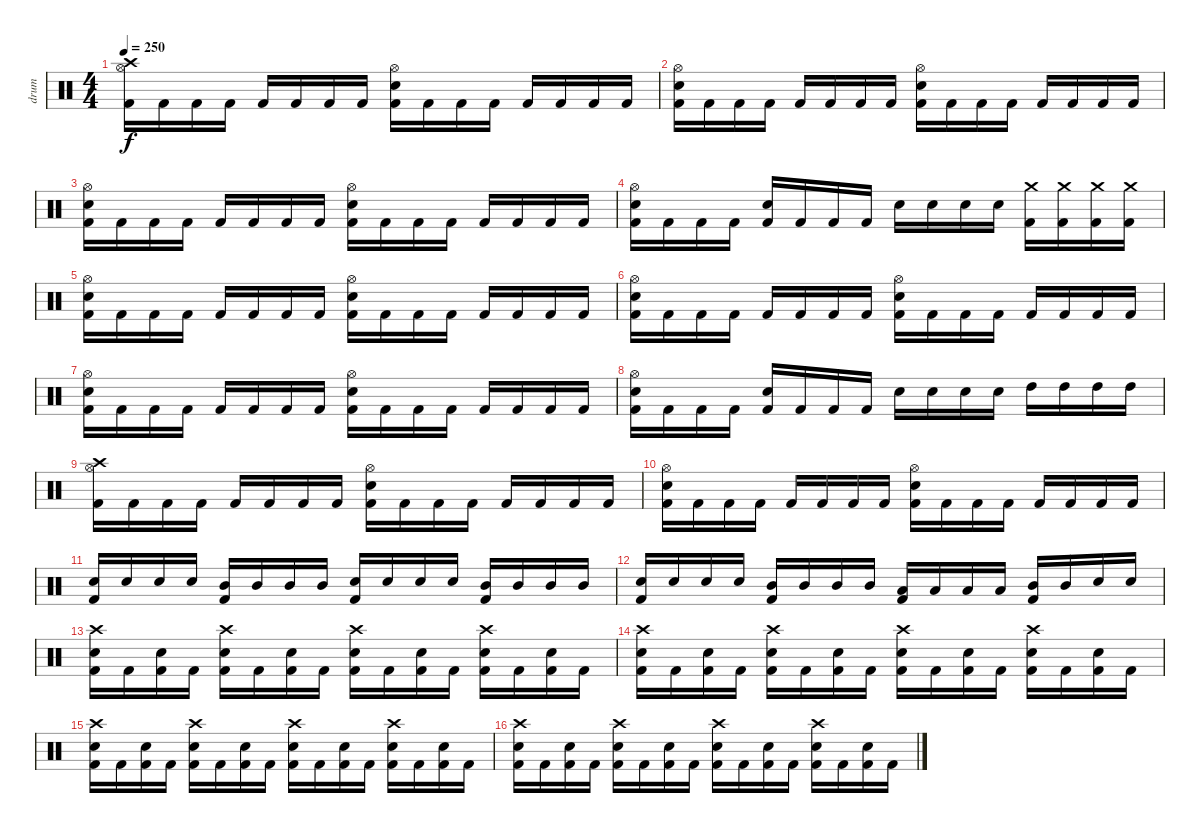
\track ("drum" "drum") {instrument percussion}
\staff {score}
\articulation defaults
\ts (4 4)
\tempo 250
\clef neutral
\ks c
("Crash high (hit)" "Hi-Hat (open)" "Kick (hit) 2").16{dy f} "Kick (hit) 2".16 "Kick (hit) 2".16 "Kick (hit) 2".16 "Kick (hit) 2".16 "Kick (hit) 2".16 "Kick (hit) 2".16 "Kick (hit) 2".16 ("Snare (hit) 2" "Hi-Hat (open)" "Kick (hit) 2").16 "Kick (hit) 2".16 "Kick (hit) 2".16 "Kick (hit) 2".16 "Kick (hit) 2".16 "Kick (hit) 2".16 "Kick (hit) 2".16 "Kick (hit) 2".16 |
("Snare (hit) 2" "Hi-Hat (open)" "Kick (hit) 2").16 "Kick (hit) 2".16 "Kick (hit) 2".16 "Kick (hit) 2".16 "Kick (hit) 2".16 "Kick (hit) 2".16 "Kick (hit) 2".16 "Kick (hit) 2".16 ("Snare (hit) 2" "Hi-Hat (open)" "Kick (hit) 2").16 "Kick (hit) 2".16 "Kick (hit) 2".16 "Kick (hit) 2".16 "Kick (hit) 2".16 "Kick (hit) 2".16 "Kick (hit) 2".16 "Kick (hit) 2".16 |
("Snare (hit) 2" "Hi-Hat (open)" "Kick (hit) 2").16 "Kick (hit) 2".16 "Kick (hit) 2".16 "Kick (hit) 2".16 "Kick (hit) 2".16 "Kick (hit) 2".16 "Kick (hit) 2".16 "Kick (hit) 2".16 ("Snare (hit) 2" "Hi-Hat (open)" "Kick (hit) 2").16 "Kick (hit) 2".16 "Kick (hit) 2".16 "Kick (hit) 2".16 "Kick (hit) 2".16 "Kick (hit) 2".16 "Kick (hit) 2".16 "Kick (hit) 2".16 |
("Snare (hit) 2" "Hi-Hat (open)" "Kick (hit) 2").16 "Kick (hit) 2".16 "Kick (hit) 2".16 "Kick (hit) 2".16 ("Snare (hit) 2" "Kick (hit) 2").16 "Kick (hit) 2".16 "Kick (hit) 2".16 "Kick (hit) 2".16 "Snare (hit) 2".16 "Snare (hit) 2".16 "Snare (hit) 2".16 "Snare (hit) 2".16 ("Crash medium (hit)" "Kick (hit) 2").16 ("Crash medium (hit)" "Kick (hit) 2").16 ("Crash medium (hit)" "Kick (hit) 2").16 ("Crash medium (hit)" "Kick (hit) 2").16 |
("Snare (hit) 2" "Hi-Hat (open)" "Kick (hit) 2").16 "Kick (hit) 2".16 "Kick (hit) 2".16 "Kick (hit) 2".16 "Kick (hit) 2".16 "Kick (hit) 2".16 "Kick (hit) 2".16 "Kick (hit) 2".16 ("Snare (hit) 2" "Hi-Hat (open)" "Kick (hit) 2").16 "Kick (hit) 2".16 "Kick (hit) 2".16 "Kick (hit) 2".16 "Kick (hit) 2".16 "Kick (hit) 2".16 "Kick (hit) 2".16 "Kick (hit) 2".16 |
("Snare (hit) 2" "Hi-Hat (open)" "Kick (hit) 2").16 "Kick (hit) 2".16 "Kick (hit) 2".16 "Kick (hit) 2".16 "Kick (hit) 2".16 "Kick (hit) 2".16 "Kick (hit) 2".16 "Kick (hit) 2".16 ("Snare (hit) 2" "Hi-Hat (open)" "Kick (hit) 2").16 "Kick (hit) 2".16 "Kick (hit) 2".16 "Kick (hit) 2".16 "Kick (hit) 2".16 "Kick (hit) 2".16 "Kick (hit) 2".16 "Kick (hit) 2".16 |
("Snare (hit) 2" "Hi-Hat (open)" "Kick (hit) 2").16 "Kick (hit) 2".16 "Kick (hit) 2".16 "Kick (hit) 2".16 "Kick (hit) 2".16 "Kick (hit) 2".16 "Kick (hit) 2".16 "Kick (hit) 2".16 ("Snare (hit) 2" "Hi-Hat (open)" "Kick (hit) 2").16 "Kick (hit) 2".16 "Kick (hit) 2".16 "Kick (hit) 2".16 "Kick (hit) 2".16 "Kick (hit) 2".16 "Kick (hit) 2".16 "Kick (hit) 2".16 |
("Snare (hit) 2" "Hi-Hat (open)" "Kick (hit) 2").16 "Kick (hit) 2".16 "Kick (hit) 2".16 "Kick (hit) 2".16 ("Snare (hit) 2" "Kick (hit) 2").16 "Kick (hit) 2".16 "Kick (hit) 2".16 "Kick (hit) 2".16 "Snare (hit) 2".16 "Snare (hit) 2".16 "Snare (hit) 2".16 "Snare (hit) 2".16 "High Tom (hit)".16 "High Tom (hit)".16 "High Tom (hit)".16 "High Tom (hit)".16 |
("Crash high (hit)" "Hi-Hat (open)" "Kick (hit) 2").16 "Kick (hit) 2".16 "Kick (hit) 2".16 "Kick (hit) 2".16 "Kick (hit) 2".16 "Kick (hit) 2".16 "Kick (hit) 2".16 "Kick (hit) 2".16 ("Snare (hit) 2" "Hi-Hat (open)" "Kick (hit) 2").16 "Kick (hit) 2".16 "Kick (hit) 2".16 "Kick (hit) 2".16 "Kick (hit) 2".16 "Kick (hit) 2".16 "Kick (hit) 2".16 "Kick (hit) 2".16 |
("Snare (hit) 2" "Hi-Hat (open)" "Kick (hit) 2").16 "Kick (hit) 2".16 "Kick (hit) 2".16 "Kick (hit) 2".16 "Kick (hit) 2".16 "Kick (hit) 2".16 "Kick (hit) 2".16 "Kick (hit) 2".16 ("Snare (hit) 2" "Hi-Hat (open)" "Kick (hit) 2").16 "Kick (hit) 2".16 "Kick (hit) 2".16 "Kick (hit) 2".16 "Kick (hit) 2".16 "Kick (hit) 2".16 "Kick (hit) 2".16 "Kick (hit) 2".16 |
("Snare (hit) 2" "Kick (hit) 2").16 "Snare (hit) 2".16 "Snare (hit) 2".16 "Snare (hit) 2".16 ("Mid Tom (hit)" "Kick (hit) 2").16 "Mid Tom (hit)".16 "Mid Tom (hit)".16 "Mid Tom (hit)".16 ("Snare (hit) 2" "Kick (hit) 2").16 "Snare (hit) 2".16 "Snare (hit) 2".16 "Snare (hit) 2".16 ("Mid Tom (hit)" "Kick (hit) 2").16 "Mid Tom (hit)".16 "Mid Tom (hit)".16 "Mid Tom (hit)".16 |
("Snare (hit) 2" "Kick (hit) 2").16 "Snare (hit) 2".16 "Snare (hit) 2".16 "Snare (hit) 2".16 ("Mid Tom (hit)" "Kick (hit) 2").16 "Mid Tom (hit)".16 "Mid Tom (hit)".16 "Mid Tom (hit)".16 ("Low Tom (hit)" "Kick (hit) 2").16 "Low Tom (hit)".16 "Low Tom (hit)".16 "Low Tom (hit)".16 ("Mid Tom (hit)" "Kick (hit) 2").16 "Mid Tom (hit)".16 "Snare (hit) 2".16 "Snare (hit) 2".16 |
("Crash high (hit)" "Snare (hit) 2" "Kick (hit) 2").16 "Kick (hit) 2".16 ("Snare (hit) 2" "Kick (hit) 2").16 "Kick (hit) 2".16 ("Crash high (hit)" "Snare (hit) 2" "Kick (hit) 2").16 "Kick (hit) 2".16 ("Snare (hit) 2" "Kick (hit) 2").16 "Kick (hit) 2".16 ("Crash high (hit)" "Snare (hit) 2" "Kick (hit) 2").16 "Kick (hit) 2".16 ("Snare (hit) 2" "Kick (hit) 2").16 "Kick (hit) 2".16 ("Crash high (hit)" "Snare (hit) 2" "Kick (hit) 2").16 "Kick (hit) 2".16 ("Snare (hit) 2" "Kick (hit) 2").16 "Kick (hit) 2".16 |
("Crash high (hit)" "Snare (hit) 2" "Kick (hit) 2").16 "Kick (hit) 2".16 ("Snare (hit) 2" "Kick (hit) 2").16 "Kick (hit) 2".16 ("Crash high (hit)" "Snare (hit) 2" "Kick (hit) 2").16 "Kick (hit) 2".16 ("Snare (hit) 2" "Kick (hit) 2").16 "Kick (hit) 2".16 ("Crash high (hit)" "Snare (hit) 2" "Kick (hit) 2").16 "Kick (hit) 2".16 ("Snare (hit) 2" "Kick (hit) 2").16 "Kick (hit) 2".16 ("Crash high (hit)" "Snare (hit) 2" "Kick (hit) 2").16 "Kick (hit) 2".16 ("Snare (hit) 2" "Kick (hit) 2").16 "Kick (hit) 2".16 |
("Crash high (hit)" "Snare (hit) 2" "Kick (hit) 2").16 "Kick (hit) 2".16 ("Snare (hit) 2" "Kick (hit) 2").16 "Kick (hit) 2".16 ("Crash high (hit)" "Snare (hit) 2" "Kick (hit) 2").16 "Kick (hit) 2".16 ("Snare (hit) 2" "Kick (hit) 2").16 "Kick (hit) 2".16 ("Crash high (hit)" "Snare (hit) 2" "Kick (hit) 2").16 "Kick (hit) 2".16 ("Snare (hit) 2" "Kick (hit) 2").16 "Kick (hit) 2".16 ("Crash high (hit)" "Snare (hit) 2" "Kick (hit) 2").16 "Kick (hit) 2".16 ("Snare (hit) 2" "Kick (hit) 2").16 "Kick (hit) 2".16 |
("Crash high (hit)" "Snare (hit) 2" "Kick (hit) 2").16 "Kick (hit) 2".16 ("Snare (hit) 2" "Kick (hit) 2").16 "Kick (hit) 2".16 ("Crash high (hit)" "Snare (hit) 2" "Kick (hit) 2").16 "Kick (hit) 2".16 ("Snare (hit) 2" "Kick (hit) 2").16 "Kick (hit) 2".16 ("Crash high (hit)" "Snare (hit) 2" "Kick (hit) 2").16 "Kick (hit) 2".16 ("Snare (hit) 2" "Kick (hit) 2").16 "Kick (hit) 2".16 ("Crash high (hit)" "Snare (hit) 2" "Kick (hit) 2").16 "Kick (hit) 2".16 ("Snare (hit) 2" "Kick (hit) 2").16 "Kick (hit) 2".16
